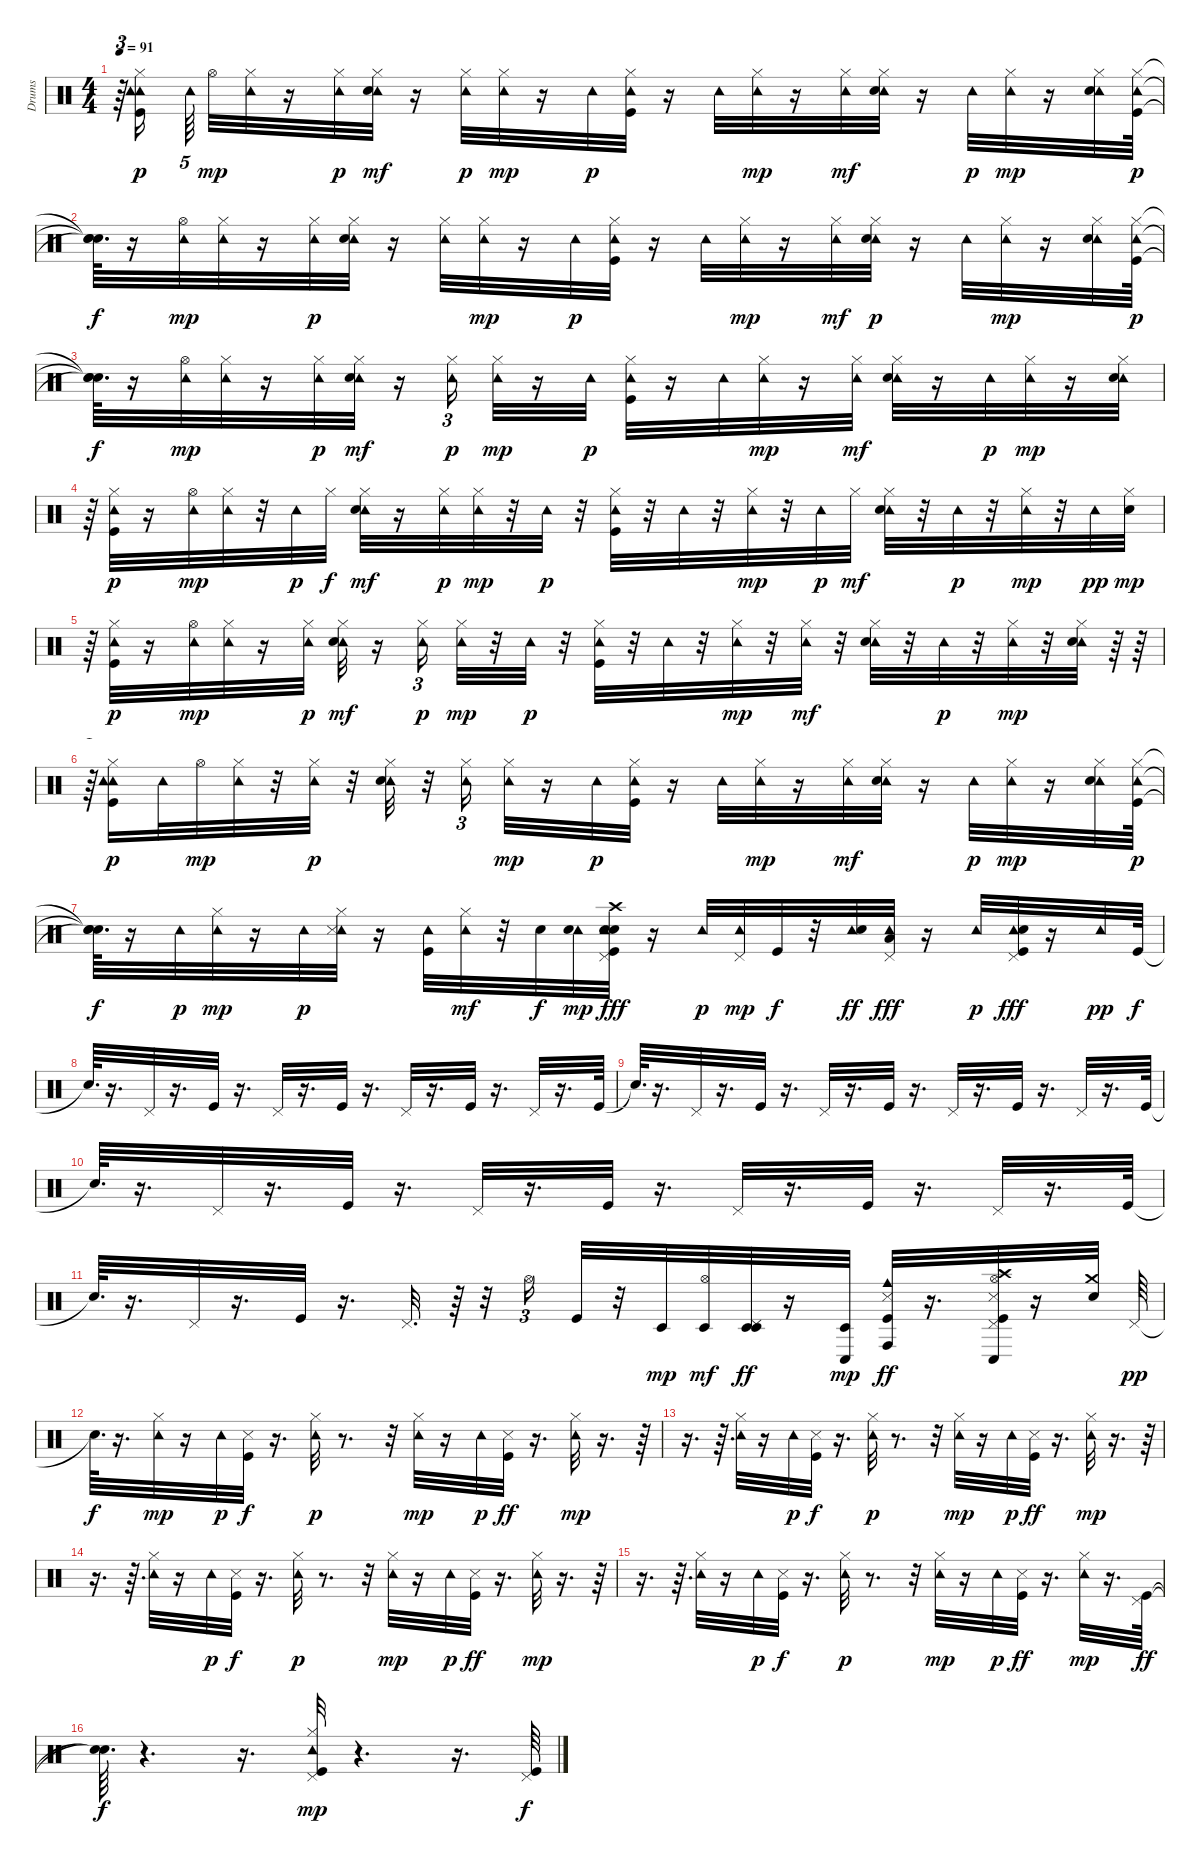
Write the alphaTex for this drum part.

\track ("Drums" "Drums") {instrument percussion}
\staff {score}
\articulation defaults
\ts (4 4)
\tempo 91
\clef neutral
\ks c
r.64{tu (3 2) dy mp} ("Tambourine (hit)" "Tambourine (hit)" "Kick (hit)" "Hi-Hat (closed)").16{dy p} "Tambourine (hit)".64{tu (5 4)} "Hi-Hat (open)".32{dy mp} ("Tambourine (hit)" "Hi-Hat (closed)").32 r.16 ("Tambourine (hit)" "Hi-Hat (closed)").32{dy p} ("Tambourine (hit)" "Hi-Hat (closed)" "Metronome (bell)").32{dy mf} r.16 ("Tambourine (hit)" "Hi-Hat (closed)").32{dy p} ("Tambourine (hit)" "Hi-Hat (closed)").32{dy mp} r.16 "Tambourine (hit)".32{dy p} ("Tambourine (hit)" "Kick (hit)" "Hi-Hat (closed)").32 r.16 "Tambourine (hit)".32 ("Hi-Hat (closed)" "Tambourine (hit)").32{dy mp} r.16 ("Tambourine (hit)" "Hi-Hat (closed)").32{dy mf} ("Tambourine (hit)" "Hi-Hat (closed)" "Metronome (bell)").32 r.16 "Tambourine (hit)".32{dy p} ("Tambourine (hit)" "Hi-Hat (closed)").32{dy mp} r.16 ("Tambourine (hit)" "Metronome (bell)" "Hi-Hat (closed)").32 ("Tambourine (hit)" "Kick (hit)" "Hi-Hat (closed)").64{dy p} |
("Snare (hit)"{t} "Snare (hit)"{t} "Snare (hit)"{t}).64{d dy f} r.16 ("Tambourine (hit)" "Hi-Hat (open)").32{dy mp} ("Tambourine (hit)" "Hi-Hat (closed)").32 r.16 ("Tambourine (hit)" "Hi-Hat (closed)").32{dy p} ("Tambourine (hit)" "Metronome (bell)" "Hi-Hat (closed)").32 r.16 ("Tambourine (hit)" "Hi-Hat (closed)").32 ("Tambourine (hit)" "Hi-Hat (closed)").32{dy mp} r.16 "Tambourine (hit)".32{dy p} ("Tambourine (hit)" "Hi-Hat (closed)" "Kick (hit)").32 r.16 "Tambourine (hit)".32 ("Tambourine (hit)" "Hi-Hat (closed)").32{dy mp} r.16 ("Tambourine (hit)" "Hi-Hat (closed)").32{dy mf} ("Tambourine (hit)" "Metronome (bell)" "Hi-Hat (closed)").32{dy p} r.16 "Tambourine (hit)".32 ("Tambourine (hit)" "Hi-Hat (closed)").32{dy mp} r.16 ("Tambourine (hit)" "Metronome (bell)" "Hi-Hat (closed)").32 ("Kick (hit)" "Tambourine (hit)" "Hi-Hat (closed)").64{dy p} |
("Snare (hit)"{t} "Snare (hit)"{t} "Snare (hit)"{t}).64{d dy f} r.16 ("Tambourine (hit)" "Hi-Hat (open)").32{dy mp} ("Tambourine (hit)" "Hi-Hat (closed)").32 r.16 ("Tambourine (hit)" "Hi-Hat (closed)").32{dy p} ("Tambourine (hit)" "Hi-Hat (closed)" "Metronome (bell)").32{dy mf} r.16 ("Tambourine (hit)" "Hi-Hat (closed)").16{tu (3 2) dy p} ("Tambourine (hit)" "Hi-Hat (closed)").32{dy mp} r.16 "Tambourine (hit)".32{dy p} ("Tambourine (hit)" "Kick (hit)" "Hi-Hat (closed)").32 r.16 "Tambourine (hit)".32 ("Tambourine (hit)" "Hi-Hat (closed)").32{dy mp} r.16 ("Tambourine (hit)" "Hi-Hat (closed)").32{dy mf} ("Tambourine (hit)" "Hi-Hat (closed)" "Metronome (bell)").32 r.16 "Tambourine (hit)".32{dy p} ("Tambourine (hit)" "Hi-Hat (closed)").32{dy mp} r.16 ("Tambourine (hit)" "Metronome (bell)" "Hi-Hat (closed)").32 |
r.64 ("Tambourine (hit)" "Kick (hit)" "Hi-Hat (closed)").32{dy p} r.16 ("Tambourine (hit)" "Hi-Hat (open)").32{dy mp} ("Tambourine (hit)" "Hi-Hat (closed)").32 r.32 "Tambourine (hit)".32{dy p} "Hi-Hat (closed)".32{dy f} ("Tambourine (hit)" "Hi-Hat (closed)" "Metronome (bell)").32{dy mf} r.16 ("Tambourine (hit)" "Hi-Hat (closed)").32{dy p} ("Tambourine (hit)" "Hi-Hat (closed)").32{dy mp} r.32 "Tambourine (hit)".32{dy p} r.32 ("Tambourine (hit)" "Hi-Hat (closed)" "Kick (hit)").32 r.32 "Tambourine (hit)".32 r.32 ("Tambourine (hit)" "Hi-Hat (closed)").32{dy mp} r.32 "Tambourine (hit)".32{dy p} "Hi-Hat (closed)".32{dy mf} ("Tambourine (hit)" "Hi-Hat (closed)" "Metronome (bell)").32 r.32 "Tambourine (hit)".32{dy p} r.32 ("Tambourine (hit)" "Hi-Hat (closed)").32{dy mp} r.32 "Tambourine (hit)".32{dy pp} ("Metronome (bell)" "Hi-Hat (closed)").32{dy mp} |
r.64 ("Tambourine (hit)" "Hi-Hat (closed)" "Kick (hit)").32{dy p} r.16 ("Tambourine (hit)" "Hi-Hat (open)").32{dy mp} ("Tambourine (hit)" "Hi-Hat (closed)").32 r.16 ("Tambourine (hit)" "Hi-Hat (closed)").32{dy p} ("Tambourine (hit)" "Hi-Hat (closed)" "Metronome (bell)").32{dy mf} r.16 ("Tambourine (hit)" "Hi-Hat (closed)").16{tu (3 2) dy p} ("Tambourine (hit)" "Hi-Hat (closed)").32{dy mp} r.32 "Tambourine (hit)".32{dy p} r.32 ("Tambourine (hit)" "Kick (hit)" "Hi-Hat (closed)").32 r.32 "Tambourine (hit)".32 r.32 ("Tambourine (hit)" "Hi-Hat (closed)").32{dy mp} r.32 ("Tambourine (hit)" "Hi-Hat (closed)").32{dy mf} r.32 ("Tambourine (hit)" "Hi-Hat (closed)" "Metronome (bell)").32 r.32 "Tambourine (hit)".32{dy p} r.32 ("Tambourine (hit)" "Hi-Hat (closed)").32{dy mp} r.32 ("Tambourine (hit)" "Metronome (bell)" "Hi-Hat (closed)").32 r.64 r.64 |
r.64{tu (5 4)} ("Tambourine (hit)" "Tambourine (hit)" "Kick (hit)" "Hi-Hat (closed)").16{dy p} "Tambourine (hit)".32 "Hi-Hat (open)".32{dy mp} ("Tambourine (hit)" "Hi-Hat (closed)").32 r.32 ("Tambourine (hit)" "Hi-Hat (closed)").32{dy p} r.32 ("Tambourine (hit)" "Metronome (bell)" "Hi-Hat (closed)").32 r.32 ("Tambourine (hit)" "Hi-Hat (closed)").16{tu (3 2)} ("Tambourine (hit)" "Hi-Hat (closed)").32{dy mp} r.16 "Tambourine (hit)".32{dy p} ("Tambourine (hit)" "Kick (hit)" "Hi-Hat (closed)").32 r.16 "Tambourine (hit)".32 ("Tambourine (hit)" "Hi-Hat (closed)").32{dy mp} r.16 ("Tambourine (hit)" "Hi-Hat (closed)").32{dy mf} ("Tambourine (hit)" "Hi-Hat (closed)" "Metronome (bell)").32 r.16 "Tambourine (hit)".32{dy p} ("Tambourine (hit)" "Hi-Hat (closed)").32{dy mp} r.16 ("Tambourine (hit)" "Metronome (bell)" "Hi-Hat (closed)").32 ("Tambourine (hit)" "Kick (hit)" "Hi-Hat (closed)").64{dy p} |
("Snare (hit)"{t} "Snare (hit)"{t} "Snare (hit)"{t}).64{d dy f} r.16 "Tambourine (hit)".32{dy p} ("Tambourine (hit)" "Hi-Hat (closed)").32{dy mp} r.16 "Tambourine (hit)".32{dy p} ("Tambourine (hit)" "Hi-Hat (closed)" "Snare (side stick) 3").32 r.16 ("Tambourine (hit)" "Kick (hit)").32 ("Tambourine (hit)" "Hi-Hat (closed)").32{dy mf} r.32 "Metronome (bell)".32{dy f} ("Tambourine (hit)" "Metronome (bell)").32{dy mp} ("Metronome (bell)" "Pedal Hi-Hat (hit)" "Tambourine (hit)" "Metronome (bell)" "Kick (hit)" "Crash high (hit)").32{dy fff} r.16 "Tambourine (hit)".32{dy p} ("Pedal Hi-Hat (hit)" "Tambourine (hit)").32{dy mp} "Kick (hit)".32{dy f} r.32 ("Tambourine (hit)" "Metronome (bell)").32{dy ff} ("Pedal Hi-Hat (hit)" "Tambourine (hit)" "Low Floor Tom (hit)").32{dy fff} r.16 "Tambourine (hit)".32{dy p} ("Pedal Hi-Hat (hit)" "Tambourine (hit)" "Metronome (bell)" "Kick (hit)").32{dy fff} r.16 "Tambourine (hit)".32{dy pp} "Kick (hit)".64{dy f} |
"Snare (hit)"{t}.64{d} r.16{d} "Pedal Hi-Hat (hit)".32 r.16{d} "Kick (hit)".32 r.16{d} "Pedal Hi-Hat (hit)".32 r.16{d} "Kick (hit)".32 r.16{d} "Pedal Hi-Hat (hit)".32 r.16{d} "Kick (hit)".32 r.16{d} "Pedal Hi-Hat (hit)".32 r.16{d} "Kick (hit)".64 |
"Snare (hit)"{t}.64{d} r.16{d} "Pedal Hi-Hat (hit)".32 r.16{d} "Kick (hit)".32 r.16{d} "Pedal Hi-Hat (hit)".32 r.16{d} "Kick (hit)".32 r.16{d} "Pedal Hi-Hat (hit)".32 r.16{d} "Kick (hit)".32 r.16{d} "Pedal Hi-Hat (hit)".32 r.16{d} "Kick (hit)".64 |
"Snare (hit)"{t}.64{d} r.16{d} "Pedal Hi-Hat (hit)".32 r.16{d} "Kick (hit)".32 r.16{d} "Pedal Hi-Hat (hit)".32 r.16{d} "Kick (hit)".32 r.16{d} "Pedal Hi-Hat (hit)".32 r.16{d} "Kick (hit)".32 r.16{d} "Pedal Hi-Hat (hit)".32 r.16{d} "Kick (hit)".64 |
"Snare (hit)"{t}.64{d} r.16{d} "Pedal Hi-Hat (hit)".32 r.16{d} "Kick (hit)".32 r.16{d} "Pedal Hi-Hat (hit)".32{d} r.64 r.32 "Hi-Hat (open)".16{tu (3 2)} "Kick (hit)".32 r.32 "Timbale low (hit)".32{dy mp} ("Hi-Hat (open)" "Timbale low (hit)").32{dy mf} ("Timbale low (hit)" "Pedal Hi-Hat (hit)" "Timbale low (hit)").32{dy ff} r.16 ("Conga low (hit)" "Timbale low (hit)").32{dy mp} ("Kick (hit)" "Snare (side stick) 3" "Cowbell medium (hit)" "Conga high (hit)").32{dy ff} r.16{d} ("Pedal Hi-Hat (hit)" "Hi-Hat (open)" "Crash high (hit)" "Conga low (hit)" "Kick (hit)" "Snare (side stick) 3").32 r.16 ("Metronome (bell)" "Crash medium (hit)").32 "Pedal Hi-Hat (hit)".64{dy pp} |
"Snare (hit)"{t}.64{d dy f} r.16{d} ("Hi-Hat (closed)" "Tambourine (hit)").32{dy mp} r.16 "Tambourine (hit)".32{dy p} ("Kick (hit)" "Snare (side stick) 3").32{dy f} r.16{d} ("Tambourine (hit)" "Hi-Hat (closed)").32{dy p} r.8{d} r.32 ("Tambourine (hit)" "Hi-Hat (closed)").32{dy mp} r.16 "Tambourine (hit)".32{dy p} ("Snare (side stick) 3" "Kick (hit)").32{dy ff} r.16{d} ("Tambourine (hit)" "Hi-Hat (closed)").32{dy mp} r.16{d} r.64 |
r.16{d} r.64{d} ("Tambourine (hit)" "Hi-Hat (closed)").32 r.16 "Tambourine (hit)".32{dy p} ("Kick (hit)" "Snare (side stick) 3").32{dy f} r.16{d} ("Tambourine (hit)" "Hi-Hat (closed)").32{dy p} r.8{d} r.32 ("Tambourine (hit)" "Hi-Hat (closed)").32{dy mp} r.16 "Tambourine (hit)".32{dy p} ("Kick (hit)" "Snare (side stick) 3").32{dy ff} r.16{d} ("Tambourine (hit)" "Hi-Hat (closed)").32{dy mp} r.16{d} r.64 |
r.16{d} r.64{d} ("Tambourine (hit)" "Hi-Hat (closed)").32 r.16 "Tambourine (hit)".32{dy p} ("Snare (side stick) 3" "Kick (hit)").32{dy f} r.16{d} ("Tambourine (hit)" "Hi-Hat (closed)").32{dy p} r.8{d} r.32 ("Tambourine (hit)" "Hi-Hat (closed)").32{dy mp} r.16 "Tambourine (hit)".32{dy p} ("Snare (side stick) 3" "Kick (hit)").32{dy ff} r.16{d} ("Tambourine (hit)" "Hi-Hat (closed)").32{dy mp} r.16{d} r.64 |
r.16{d} r.64{d} ("Tambourine (hit)" "Hi-Hat (closed)").32 r.16 "Tambourine (hit)".32{dy p} ("Kick (hit)" "Snare (side stick) 3").32{dy f} r.16{d} ("Tambourine (hit)" "Hi-Hat (closed)").32{dy p} r.8{d} r.32 ("Tambourine (hit)" "Hi-Hat (closed)").32{dy mp} r.16 "Tambourine (hit)".32{dy p} ("Kick (hit)" "Snare (side stick) 3").32{dy ff} r.16{d} ("Tambourine (hit)" "Hi-Hat (closed)").32{dy mp} r.16{d} ("Kick (hit)" "Pedal Hi-Hat (hit)").64{dy ff} |
("Snare (hit)"{t} "Snare (hit)"{t}).64{d dy f} r.4{d} r.16{d} ("Kick (hit)" "Pedal Hi-Hat (hit)" "Tambourine (hit)" "Hi-Hat (closed)").32{dy mp} r.4{d} r.16{d} ("Pedal Hi-Hat (hit)" "Kick (hit)").64{dy f}
